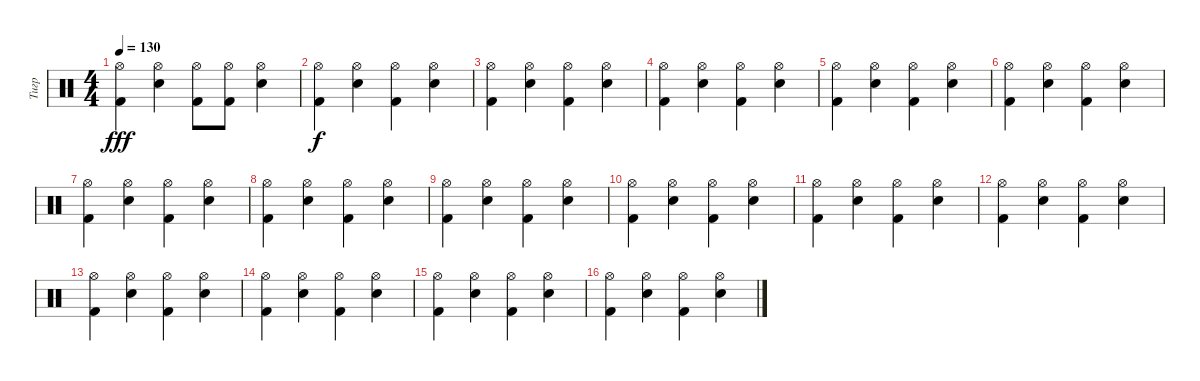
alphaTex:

\track ("Тигр" "Тигр") {instrument percussion}
\staff {score}
\articulation defaults
\ts (4 4)
\tempo 130
\clef neutral
\ks c
("Hi-Hat (open)" "Kick (hit) 2").4{dy fff} ("Hi-Hat (open)" "Snare (hit) 2").4 ("Hi-Hat (open)" "Kick (hit) 2").8 ("Hi-Hat (open)" "Kick (hit) 2").8 ("Hi-Hat (open)" "Snare (hit) 2").4 |
("Hi-Hat (open)" "Kick (hit) 2").4{dy f} ("Hi-Hat (open)" "Snare (hit) 2").4 ("Hi-Hat (open)" "Kick (hit) 2").4 ("Hi-Hat (open)" "Snare (hit) 2").4 |
("Hi-Hat (open)" "Kick (hit) 2").4 ("Hi-Hat (open)" "Snare (hit) 2").4 ("Hi-Hat (open)" "Kick (hit) 2").4 ("Hi-Hat (open)" "Snare (hit) 2").4 |
("Hi-Hat (open)" "Kick (hit) 2").4 ("Hi-Hat (open)" "Snare (hit) 2").4 ("Hi-Hat (open)" "Kick (hit) 2").4 ("Hi-Hat (open)" "Snare (hit) 2").4 |
("Hi-Hat (open)" "Kick (hit) 2").4 ("Hi-Hat (open)" "Snare (hit) 2").4 ("Hi-Hat (open)" "Kick (hit) 2").4 ("Hi-Hat (open)" "Snare (hit) 2").4 |
("Hi-Hat (open)" "Kick (hit) 2").4 ("Hi-Hat (open)" "Snare (hit) 2").4 ("Hi-Hat (open)" "Kick (hit) 2").4 ("Hi-Hat (open)" "Snare (hit) 2").4 |
("Hi-Hat (open)" "Kick (hit) 2").4 ("Hi-Hat (open)" "Snare (hit) 2").4 ("Hi-Hat (open)" "Kick (hit) 2").4 ("Hi-Hat (open)" "Snare (hit) 2").4 |
("Hi-Hat (open)" "Kick (hit) 2").4 ("Hi-Hat (open)" "Snare (hit) 2").4 ("Hi-Hat (open)" "Kick (hit) 2").4 ("Hi-Hat (open)" "Snare (hit) 2").4 |
("Hi-Hat (open)" "Kick (hit) 2").4 ("Hi-Hat (open)" "Snare (hit) 2").4 ("Hi-Hat (open)" "Kick (hit) 2").4 ("Hi-Hat (open)" "Snare (hit) 2").4 |
("Hi-Hat (open)" "Kick (hit) 2").4 ("Hi-Hat (open)" "Snare (hit) 2").4 ("Hi-Hat (open)" "Kick (hit) 2").4 ("Hi-Hat (open)" "Snare (hit) 2").4 |
("Hi-Hat (open)" "Kick (hit) 2").4 ("Hi-Hat (open)" "Snare (hit) 2").4 ("Hi-Hat (open)" "Kick (hit) 2").4 ("Hi-Hat (open)" "Snare (hit) 2").4 |
("Hi-Hat (open)" "Kick (hit) 2").4 ("Hi-Hat (open)" "Snare (hit) 2").4 ("Hi-Hat (open)" "Kick (hit) 2").4 ("Hi-Hat (open)" "Snare (hit) 2").4 |
("Hi-Hat (open)" "Kick (hit) 2").4 ("Hi-Hat (open)" "Snare (hit) 2").4 ("Hi-Hat (open)" "Kick (hit) 2").4 ("Hi-Hat (open)" "Snare (hit) 2").4 |
("Hi-Hat (open)" "Kick (hit) 2").4 ("Hi-Hat (open)" "Snare (hit) 2").4 ("Hi-Hat (open)" "Kick (hit) 2").4 ("Hi-Hat (open)" "Snare (hit) 2").4 |
("Hi-Hat (open)" "Kick (hit) 2").4 ("Hi-Hat (open)" "Snare (hit) 2").4 ("Hi-Hat (open)" "Kick (hit) 2").4 ("Hi-Hat (open)" "Snare (hit) 2").4 |
("Hi-Hat (open)" "Kick (hit) 2").4 ("Hi-Hat (open)" "Snare (hit) 2").4 ("Hi-Hat (open)" "Kick (hit) 2").4 ("Hi-Hat (open)" "Snare (hit) 2").4
